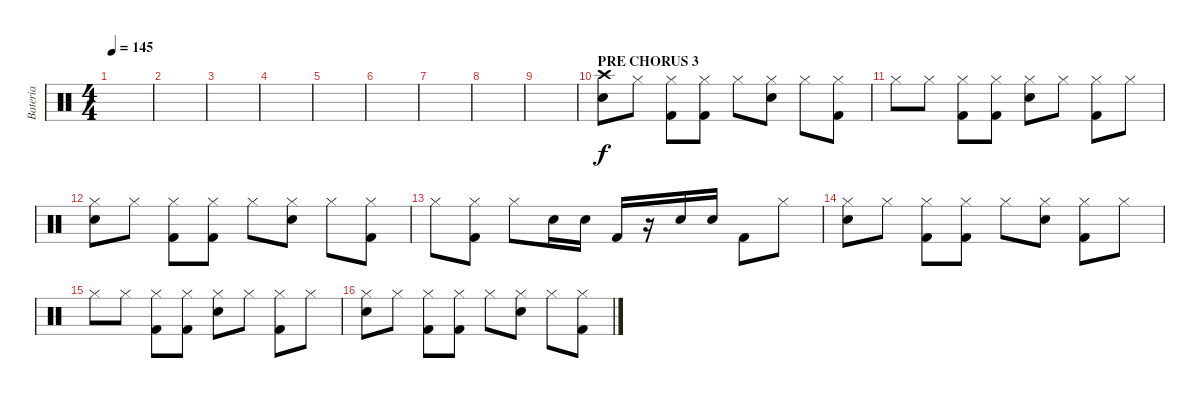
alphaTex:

\track ("Bateria" "Bateria") {instrument percussion}
\staff {score}
\articulation defaults
\ts (4 4)
\tempo 145
\clef neutral
\ks c
|
|
|
|
|
|
|
|
|
\section ("" "PRE CHORUS 3")
("Crash high (hit)" "Snare (hit) 2").8 "Hi-Hat (closed)".8 ("Hi-Hat (closed)" "Kick (hit) 2").8 ("Hi-Hat (closed)" "Kick (hit) 2").8 "Hi-Hat (closed)".8 ("Hi-Hat (closed)" "Snare (hit) 2").8 "Hi-Hat (closed)".8 ("Hi-Hat (closed)" "Kick (hit) 2").8 |
"Hi-Hat (closed)".8 "Hi-Hat (closed)".8 ("Hi-Hat (closed)" "Kick (hit) 2").8 ("Hi-Hat (closed)" "Kick (hit) 2").8 ("Hi-Hat (closed)" "Snare (hit) 2").8 "Hi-Hat (closed)".8 ("Hi-Hat (closed)" "Kick (hit) 2").8 "Hi-Hat (closed)".8 |
("Hi-Hat (closed)" "Snare (hit) 2").8 "Hi-Hat (closed)".8 ("Hi-Hat (closed)" "Kick (hit) 2").8 ("Hi-Hat (closed)" "Kick (hit) 2").8 "Hi-Hat (closed)".8 ("Hi-Hat (closed)" "Snare (hit) 2").8 "Hi-Hat (closed)".8 ("Hi-Hat (closed)" "Kick (hit) 2").8 |
"Hi-Hat (closed)".8 ("Hi-Hat (closed)" "Kick (hit) 2").8 "Hi-Hat (closed)".8 "Snare (hit) 2".16 "Snare (hit) 2".16 "Kick (hit) 2".16 r.16 "Snare (hit) 2".16 "Snare (hit) 2".16 "Kick (hit) 2".8 "Hi-Hat (closed)".8 |
("Hi-Hat (closed)" "Snare (hit) 2").8 "Hi-Hat (closed)".8 ("Hi-Hat (closed)" "Kick (hit) 2").8 ("Hi-Hat (closed)" "Kick (hit) 2").8 "Hi-Hat (closed)".8 ("Hi-Hat (closed)" "Snare (hit) 2").8 ("Hi-Hat (closed)" "Kick (hit) 2").8 "Hi-Hat (closed)".8 |
"Hi-Hat (closed)".8 "Hi-Hat (closed)".8 ("Hi-Hat (closed)" "Kick (hit) 2").8 ("Hi-Hat (closed)" "Kick (hit) 2").8 ("Hi-Hat (closed)" "Snare (hit) 2").8 "Hi-Hat (closed)".8 ("Hi-Hat (closed)" "Kick (hit) 2").8 "Hi-Hat (closed)".8 |
("Hi-Hat (closed)" "Snare (hit) 2").8 "Hi-Hat (closed)".8 ("Hi-Hat (closed)" "Kick (hit) 2").8 ("Hi-Hat (closed)" "Kick (hit) 2").8 "Hi-Hat (closed)".8 ("Hi-Hat (closed)" "Snare (hit) 2").8 "Hi-Hat (closed)".8 ("Hi-Hat (closed)" "Kick (hit) 2").8
